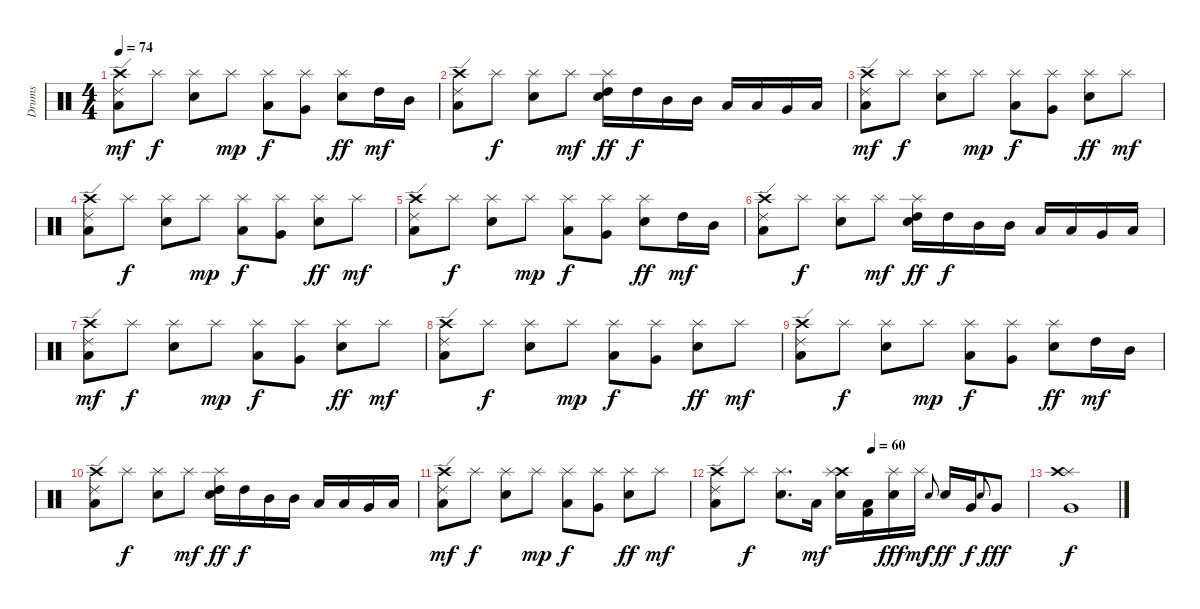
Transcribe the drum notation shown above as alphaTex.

\track ("Drums" "Drums") {instrument percussion}
\staff {score}
\articulation defaults
\ts (4 4)
\tempo 74
\clef neutral
\ks c
("Crash high (hit)" "Ride (edge) 2" "Low Tom (hit)").8{dy mf} "Splash (hit)".8{dy f} ("Electric Snare (hit)" "Splash (hit)").8 "Splash (hit)".8{dy mp} ("Low Tom (hit)" "Splash (hit)").8{dy f} ("Very Low Tom (hit)" "Splash (hit)").8 ("Splash (hit)" "Electric Snare (hit)").8{dy ff} "High Tom (hit)".16{dy mf} "Mid Tom (hit)".16 |
("Crash high (hit)" "Ride (edge) 2" "Low Tom (hit)").8 "Splash (hit)".8{dy f} ("Electric Snare (hit)" "Splash (hit)").8 "Splash (hit)".8{dy mf} ("Splash (hit)" "High Tom (hit)" "Electric Snare (hit)").16{dy ff} "High Tom (hit)".16{dy f} "Mid Tom (hit)".16 "Mid Tom (hit)".16 "Low Tom (hit)".16 "Low Tom (hit)".16 "Very Low Tom (hit)".16 "Low Floor Tom (hit)".16 |
("Crash high (hit)" "Ride (edge) 2" "Low Tom (hit)").8{dy mf} "Splash (hit)".8{dy f} ("Electric Snare (hit)" "Splash (hit)").8 "Splash (hit)".8{dy mp} ("Low Tom (hit)" "Splash (hit)").8{dy f} ("Very Low Tom (hit)" "Splash (hit)").8 ("Splash (hit)" "Electric Snare (hit)").8{dy ff} "Splash (hit)".8{dy mf} |
("Crash high (hit)" "Ride (edge) 2" "Low Tom (hit)").8 "Splash (hit)".8{dy f} ("Electric Snare (hit)" "Splash (hit)").8 "Splash (hit)".8{dy mp} ("Low Tom (hit)" "Splash (hit)").8{dy f} ("Very Low Tom (hit)" "Splash (hit)").8 ("Splash (hit)" "Electric Snare (hit)").8{dy ff} "Splash (hit)".8{dy mf} |
("Crash high (hit)" "Ride (edge) 2" "Low Tom (hit)").8 "Splash (hit)".8{dy f} ("Electric Snare (hit)" "Splash (hit)").8 "Splash (hit)".8{dy mp} ("Low Tom (hit)" "Splash (hit)").8{dy f} ("Very Low Tom (hit)" "Splash (hit)").8 ("Splash (hit)" "Electric Snare (hit)").8{dy ff} "High Tom (hit)".16{dy mf} "Mid Tom (hit)".16 |
("Crash high (hit)" "Ride (edge) 2" "Low Tom (hit)").8 "Splash (hit)".8{dy f} ("Electric Snare (hit)" "Splash (hit)").8 "Splash (hit)".8{dy mf} ("Splash (hit)" "High Tom (hit)" "Electric Snare (hit)").16{dy ff} "High Tom (hit)".16{dy f} "Mid Tom (hit)".16 "Mid Tom (hit)".16 "Low Tom (hit)".16 "Low Tom (hit)".16 "Very Low Tom (hit)".16 "Low Floor Tom (hit)".16 |
("Crash high (hit)" "Ride (edge) 2" "Low Tom (hit)").8{dy mf} "Splash (hit)".8{dy f} ("Electric Snare (hit)" "Splash (hit)").8 "Splash (hit)".8{dy mp} ("Low Tom (hit)" "Splash (hit)").8{dy f} ("Very Low Tom (hit)" "Splash (hit)").8 ("Splash (hit)" "Electric Snare (hit)").8{dy ff} "Splash (hit)".8{dy mf} |
("Crash high (hit)" "Ride (edge) 2" "Low Tom (hit)").8 "Splash (hit)".8{dy f} ("Electric Snare (hit)" "Splash (hit)").8 "Splash (hit)".8{dy mp} ("Low Tom (hit)" "Splash (hit)").8{dy f} ("Very Low Tom (hit)" "Splash (hit)").8 ("Splash (hit)" "Electric Snare (hit)").8{dy ff} "Splash (hit)".8{dy mf} |
("Crash high (hit)" "Ride (edge) 2" "Low Tom (hit)").8 "Splash (hit)".8{dy f} ("Electric Snare (hit)" "Splash (hit)").8 "Splash (hit)".8{dy mp} ("Low Tom (hit)" "Splash (hit)").8{dy f} ("Very Low Tom (hit)" "Splash (hit)").8 ("Splash (hit)" "Electric Snare (hit)").8{dy ff} "High Tom (hit)".16{dy mf} "Mid Tom (hit)".16 |
("Crash high (hit)" "Ride (edge) 2" "Low Tom (hit)").8 "Splash (hit)".8{dy f} ("Electric Snare (hit)" "Splash (hit)").8 "Splash (hit)".8{dy mf} ("Splash (hit)" "High Tom (hit)" "Electric Snare (hit)").16{dy ff} "High Tom (hit)".16{dy f} "Mid Tom (hit)".16 "Mid Tom (hit)".16 "Low Tom (hit)".16 "Low Tom (hit)".16 "Very Low Tom (hit)".16 "Low Floor Tom (hit)".16 |
("Crash high (hit)" "Ride (edge) 2" "Low Tom (hit)").8{dy mf} "Splash (hit)".8{dy f} ("Electric Snare (hit)" "Splash (hit)").8 "Splash (hit)".8{dy mp} ("Low Tom (hit)" "Splash (hit)").8{dy f} ("Very Low Tom (hit)" "Splash (hit)").8 ("Splash (hit)" "Electric Snare (hit)").8{dy ff} "Splash (hit)".8{dy mf} |
\tempo (60 0.5)
("Crash high (hit)" "Ride (edge) 2" "Low Tom (hit)").8 "Splash (hit)".8{dy f} ("Electric Snare (hit)" "Splash (hit)").8{d} "Low Tom (hit)".16{dy mf} ("Crash high (hit)" "Splash (hit)" "Electric Snare (hit)").16 ("Low Tom (hit)" "Kick (hit) 2").16 ("Splash (hit)" "Electric Snare (hit)").16{dy fff} "Splash (hit)".16{dy mf} "Electric Snare (hit)".8{gr onbeat dy f} "Electric Snare (hit)".16{dy ff} "Very Low Tom (hit)".16{dy f} "Electric Snare (hit)".8{gr onbeat} "Very Low Tom (hit)".8{dy fff} |
("Splash (hit)" "Crash high (hit)" "Very Low Tom (hit)").1{dy f}
